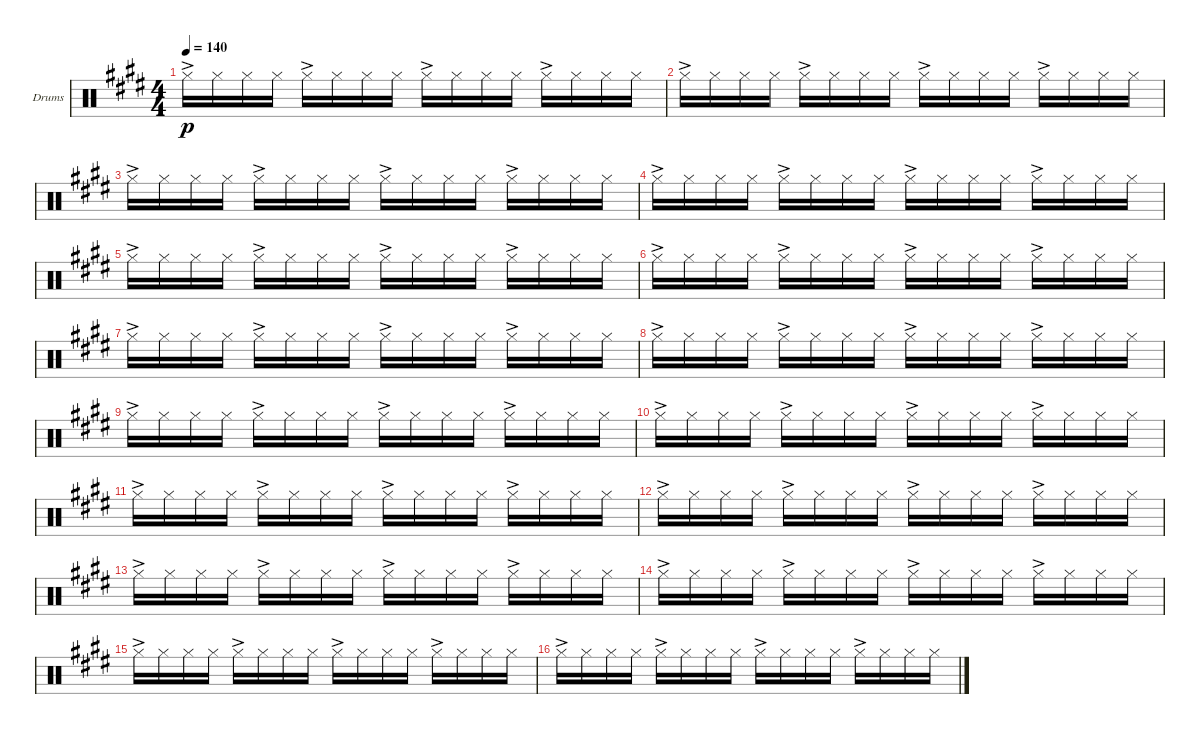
\defaultSystemsLayout 4
\bracketExtendMode groupsimilarinstruments
\firstSystemTrackNameOrientation horizontal
\otherSystemsTrackNameOrientation horizontal
\track ("Drumkit" "Drums") {instrument percussion}
\staff {score}
\articulation defaults
\ts (4 4)
\tempo 140
\clef neutral
\scale
0.333333
\ks e "Hi-Hat (closed)"{ac}.16{dy p} "Hi-Hat (closed)".16 "Hi-Hat (closed)".16 "Hi-Hat (closed)".16 "Hi-Hat (closed)"{ac}.16 "Hi-Hat (closed)".16 "Hi-Hat (closed)".16 "Hi-Hat (closed)".16 "Hi-Hat (closed)"{ac}.16 "Hi-Hat (closed)".16 "Hi-Hat (closed)".16 "Hi-Hat (closed)".16 "Hi-Hat (closed)"{ac}.16 "Hi-Hat (closed)".16 "Hi-Hat (closed)".16 "Hi-Hat (closed)".16
|
\scale
0.333333 "Hi-Hat (closed)"{ac}.16 "Hi-Hat (closed)".16 "Hi-Hat (closed)".16 "Hi-Hat (closed)".16 "Hi-Hat (closed)"{ac}.16 "Hi-Hat (closed)".16 "Hi-Hat (closed)".16 "Hi-Hat (closed)".16 "Hi-Hat (closed)"{ac}.16 "Hi-Hat (closed)".16 "Hi-Hat (closed)".16 "Hi-Hat (closed)".16 "Hi-Hat (closed)"{ac}.16 "Hi-Hat (closed)".16 "Hi-Hat (closed)".16 "Hi-Hat (closed)".16 |
\scale
0.333333 "Hi-Hat (closed)"{ac}.16 "Hi-Hat (closed)".16 "Hi-Hat (closed)".16 "Hi-Hat (closed)".16 "Hi-Hat (closed)"{ac}.16 "Hi-Hat (closed)".16 "Hi-Hat (closed)".16 "Hi-Hat (closed)".16 "Hi-Hat (closed)"{ac}.16 "Hi-Hat (closed)".16 "Hi-Hat (closed)".16 "Hi-Hat (closed)".16 "Hi-Hat (closed)"{ac}.16 "Hi-Hat (closed)".16 "Hi-Hat (closed)".16 "Hi-Hat (closed)".16 |
\scale
0.333333 "Hi-Hat (closed)"{ac}.16 "Hi-Hat (closed)".16 "Hi-Hat (closed)".16 "Hi-Hat (closed)".16 "Hi-Hat (closed)"{ac}.16 "Hi-Hat (closed)".16 "Hi-Hat (closed)".16 "Hi-Hat (closed)".16 "Hi-Hat (closed)"{ac}.16 "Hi-Hat (closed)".16 "Hi-Hat (closed)".16 "Hi-Hat (closed)".16 "Hi-Hat (closed)"{ac}.16 "Hi-Hat (closed)".16 "Hi-Hat (closed)".16 "Hi-Hat (closed)".16 |
\scale
0.333333 "Hi-Hat (closed)"{ac}.16 "Hi-Hat (closed)".16 "Hi-Hat (closed)".16 "Hi-Hat (closed)".16 "Hi-Hat (closed)"{ac}.16 "Hi-Hat (closed)".16 "Hi-Hat (closed)".16 "Hi-Hat (closed)".16 "Hi-Hat (closed)"{ac}.16 "Hi-Hat (closed)".16 "Hi-Hat (closed)".16 "Hi-Hat (closed)".16 "Hi-Hat (closed)"{ac}.16 "Hi-Hat (closed)".16 "Hi-Hat (closed)".16 "Hi-Hat (closed)".16 |
\scale
0.333333 "Hi-Hat (closed)"{ac}.16 "Hi-Hat (closed)".16 "Hi-Hat (closed)".16 "Hi-Hat (closed)".16 "Hi-Hat (closed)"{ac}.16 "Hi-Hat (closed)".16 "Hi-Hat (closed)".16 "Hi-Hat (closed)".16 "Hi-Hat (closed)"{ac}.16 "Hi-Hat (closed)".16 "Hi-Hat (closed)".16 "Hi-Hat (closed)".16 "Hi-Hat (closed)"{ac}.16 "Hi-Hat (closed)".16 "Hi-Hat (closed)".16 "Hi-Hat (closed)".16 |
\scale
0.333333 "Hi-Hat (closed)"{ac}.16 "Hi-Hat (closed)".16 "Hi-Hat (closed)".16 "Hi-Hat (closed)".16 "Hi-Hat (closed)"{ac}.16 "Hi-Hat (closed)".16 "Hi-Hat (closed)".16 "Hi-Hat (closed)".16 "Hi-Hat (closed)"{ac}.16 "Hi-Hat (closed)".16 "Hi-Hat (closed)".16 "Hi-Hat (closed)".16 "Hi-Hat (closed)"{ac}.16 "Hi-Hat (closed)".16 "Hi-Hat (closed)".16 "Hi-Hat (closed)".16 |
\scale
0.333333 "Hi-Hat (closed)"{ac}.16 "Hi-Hat (closed)".16 "Hi-Hat (closed)".16 "Hi-Hat (closed)".16 "Hi-Hat (closed)"{ac}.16 "Hi-Hat (closed)".16 "Hi-Hat (closed)".16 "Hi-Hat (closed)".16 "Hi-Hat (closed)"{ac}.16 "Hi-Hat (closed)".16 "Hi-Hat (closed)".16 "Hi-Hat (closed)".16 "Hi-Hat (closed)"{ac}.16 "Hi-Hat (closed)".16 "Hi-Hat (closed)".16 "Hi-Hat (closed)".16 |
\scale
0.333333 "Hi-Hat (closed)"{ac}.16 "Hi-Hat (closed)".16 "Hi-Hat (closed)".16 "Hi-Hat (closed)".16 "Hi-Hat (closed)"{ac}.16 "Hi-Hat (closed)".16 "Hi-Hat (closed)".16 "Hi-Hat (closed)".16 "Hi-Hat (closed)"{ac}.16 "Hi-Hat (closed)".16 "Hi-Hat (closed)".16 "Hi-Hat (closed)".16 "Hi-Hat (closed)"{ac}.16 "Hi-Hat (closed)".16 "Hi-Hat (closed)".16 "Hi-Hat (closed)".16 |
\scale
0.333333 "Hi-Hat (closed)"{ac}.16 "Hi-Hat (closed)".16 "Hi-Hat (closed)".16 "Hi-Hat (closed)".16 "Hi-Hat (closed)"{ac}.16 "Hi-Hat (closed)".16 "Hi-Hat (closed)".16 "Hi-Hat (closed)".16 "Hi-Hat (closed)"{ac}.16 "Hi-Hat (closed)".16 "Hi-Hat (closed)".16 "Hi-Hat (closed)".16 "Hi-Hat (closed)"{ac}.16 "Hi-Hat (closed)".16 "Hi-Hat (closed)".16 "Hi-Hat (closed)".16 |
\scale
0.333333 "Hi-Hat (closed)"{ac}.16 "Hi-Hat (closed)".16 "Hi-Hat (closed)".16 "Hi-Hat (closed)".16 "Hi-Hat (closed)"{ac}.16 "Hi-Hat (closed)".16 "Hi-Hat (closed)".16 "Hi-Hat (closed)".16 "Hi-Hat (closed)"{ac}.16 "Hi-Hat (closed)".16 "Hi-Hat (closed)".16 "Hi-Hat (closed)".16 "Hi-Hat (closed)"{ac}.16 "Hi-Hat (closed)".16 "Hi-Hat (closed)".16 "Hi-Hat (closed)".16 |
\scale
0.333333 "Hi-Hat (closed)"{ac}.16 "Hi-Hat (closed)".16 "Hi-Hat (closed)".16 "Hi-Hat (closed)".16 "Hi-Hat (closed)"{ac}.16 "Hi-Hat (closed)".16 "Hi-Hat (closed)".16 "Hi-Hat (closed)".16 "Hi-Hat (closed)"{ac}.16 "Hi-Hat (closed)".16 "Hi-Hat (closed)".16 "Hi-Hat (closed)".16 "Hi-Hat (closed)"{ac}.16 "Hi-Hat (closed)".16 "Hi-Hat (closed)".16 "Hi-Hat (closed)".16 |
\scale
0.333333 "Hi-Hat (closed)"{ac}.16 "Hi-Hat (closed)".16 "Hi-Hat (closed)".16 "Hi-Hat (closed)".16 "Hi-Hat (closed)"{ac}.16 "Hi-Hat (closed)".16 "Hi-Hat (closed)".16 "Hi-Hat (closed)".16 "Hi-Hat (closed)"{ac}.16 "Hi-Hat (closed)".16 "Hi-Hat (closed)".16 "Hi-Hat (closed)".16 "Hi-Hat (closed)"{ac}.16 "Hi-Hat (closed)".16 "Hi-Hat (closed)".16 "Hi-Hat (closed)".16 |
\scale
0.333333 "Hi-Hat (closed)"{ac}.16 "Hi-Hat (closed)".16 "Hi-Hat (closed)".16 "Hi-Hat (closed)".16 "Hi-Hat (closed)"{ac}.16 "Hi-Hat (closed)".16 "Hi-Hat (closed)".16 "Hi-Hat (closed)".16 "Hi-Hat (closed)"{ac}.16 "Hi-Hat (closed)".16 "Hi-Hat (closed)".16 "Hi-Hat (closed)".16 "Hi-Hat (closed)"{ac}.16 "Hi-Hat (closed)".16 "Hi-Hat (closed)".16 "Hi-Hat (closed)".16 |
\scale
0.333333 "Hi-Hat (closed)"{ac}.16 "Hi-Hat (closed)".16 "Hi-Hat (closed)".16 "Hi-Hat (closed)".16 "Hi-Hat (closed)"{ac}.16 "Hi-Hat (closed)".16 "Hi-Hat (closed)".16 "Hi-Hat (closed)".16 "Hi-Hat (closed)"{ac}.16 "Hi-Hat (closed)".16 "Hi-Hat (closed)".16 "Hi-Hat (closed)".16 "Hi-Hat (closed)"{ac}.16 "Hi-Hat (closed)".16 "Hi-Hat (closed)".16 "Hi-Hat (closed)".16 |
\scale
0.333333 "Hi-Hat (closed)"{ac}.16 "Hi-Hat (closed)".16 "Hi-Hat (closed)".16 "Hi-Hat (closed)".16 "Hi-Hat (closed)"{ac}.16 "Hi-Hat (closed)".16 "Hi-Hat (closed)".16 "Hi-Hat (closed)".16 "Hi-Hat (closed)"{ac}.16 "Hi-Hat (closed)".16 "Hi-Hat (closed)".16 "Hi-Hat (closed)".16 "Hi-Hat (closed)"{ac}.16 "Hi-Hat (closed)".16 "Hi-Hat (closed)".16 "Hi-Hat (closed)".16
